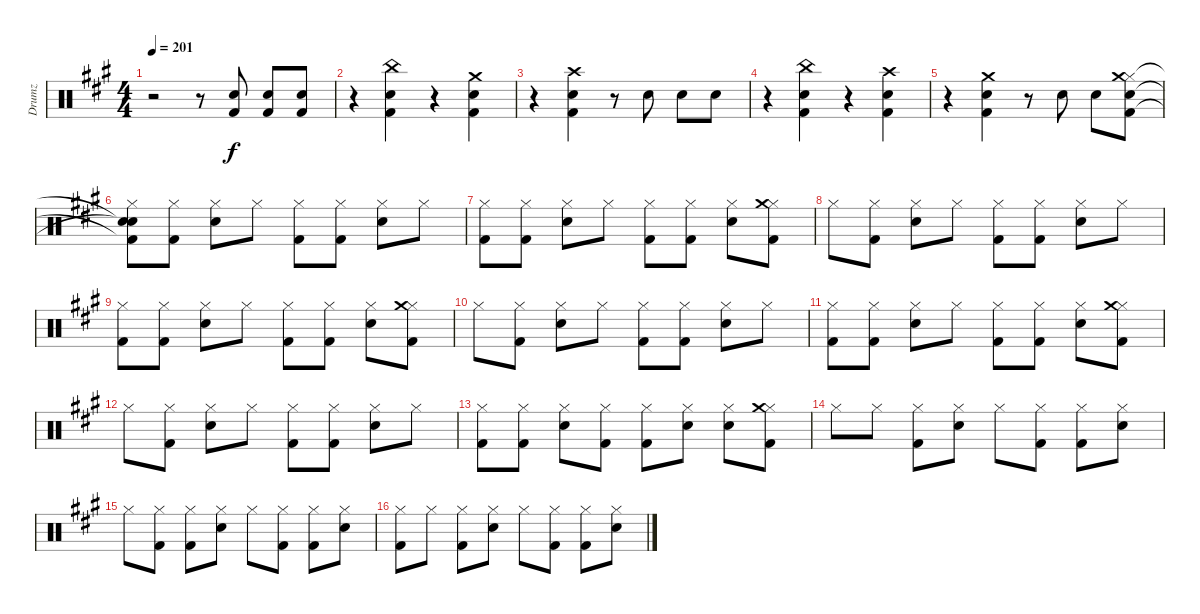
\track ("Drumz" "Drumz") {instrument percussion}
\staff {score}
\articulation defaults
\ts (4 4)
\tempo 201
\clef neutral
\ks a
r.2{dy f} r.8 ("Kick (hit) 2" "Snare (hit) 2").8 ("Kick (hit) 2" "Snare (hit) 2").8 ("Kick (hit) 2" "Snare (hit) 2").8 |
r.4 ("Kick (hit) 2" "Snare (hit) 2" "China (hit)").4 r.4 ("Kick (hit) 2" "Snare (hit) 2" "Crash medium (hit)").4 |
r.4 ("Kick (hit) 2" "Snare (hit) 2" "Crash high (hit)").4 r.8 "Snare (hit) 2".8 "Snare (hit) 2".8 "Snare (hit) 2".8 |
r.4 ("Kick (hit) 2" "Snare (hit) 2" "China (hit)").4 r.4 ("Kick (hit) 2" "Snare (hit) 2" "Crash high (hit)").4 |
r.4 ("Kick (hit) 2" "Snare (hit) 2" "Crash medium (hit)").4 r.8 "Snare (hit) 2".8 "Snare (hit) 2".8 ("Hi-Hat (closed)" "Kick (hit) 2" "Snare (hit) 2" "Crash medium (hit)").8 |
("Hi-Hat (closed)" "Snare (hit)"{t} "Kick (hit) 2"{t} "Snare (hit)"{t}).8 ("Hi-Hat (closed)" "Kick (hit) 2").8 ("Hi-Hat (closed)" "Snare (hit) 2").8 "Hi-Hat (closed)".8 ("Hi-Hat (closed)" "Kick (hit) 2").8 ("Hi-Hat (closed)" "Kick (hit) 2").8 ("Hi-Hat (closed)" "Snare (hit) 2").8 "Hi-Hat (closed)".8 |
("Hi-Hat (closed)" "Kick (hit) 2").8 ("Hi-Hat (closed)" "Kick (hit) 2").8 ("Hi-Hat (closed)" "Snare (hit) 2").8 "Hi-Hat (closed)".8 ("Hi-Hat (closed)" "Kick (hit) 2").8 ("Hi-Hat (closed)" "Kick (hit) 2").8 ("Hi-Hat (closed)" "Snare (hit) 2").8 ("Hi-Hat (closed)" "Kick (hit) 2" "Crash medium (hit)").8 |
"Hi-Hat (closed)".8 ("Hi-Hat (closed)" "Kick (hit) 2").8 ("Hi-Hat (closed)" "Snare (hit) 2").8 "Hi-Hat (closed)".8 ("Hi-Hat (closed)" "Kick (hit) 2").8 ("Hi-Hat (closed)" "Kick (hit) 2").8 ("Hi-Hat (closed)" "Snare (hit) 2").8 "Hi-Hat (closed)".8 |
("Hi-Hat (closed)" "Kick (hit) 2").8 ("Hi-Hat (closed)" "Kick (hit) 2").8 ("Hi-Hat (closed)" "Snare (hit) 2").8 "Hi-Hat (closed)".8 ("Hi-Hat (closed)" "Kick (hit) 2").8 ("Hi-Hat (closed)" "Kick (hit) 2").8 ("Hi-Hat (closed)" "Snare (hit) 2").8 ("Hi-Hat (closed)" "Kick (hit) 2" "Crash medium (hit)").8 |
"Hi-Hat (closed)".8 ("Hi-Hat (closed)" "Kick (hit) 2").8 ("Hi-Hat (closed)" "Snare (hit) 2").8 "Hi-Hat (closed)".8 ("Hi-Hat (closed)" "Kick (hit) 2").8 ("Hi-Hat (closed)" "Kick (hit) 2").8 ("Hi-Hat (closed)" "Snare (hit) 2").8 "Hi-Hat (closed)".8 |
("Hi-Hat (closed)" "Kick (hit) 2").8 ("Hi-Hat (closed)" "Kick (hit) 2").8 ("Hi-Hat (closed)" "Snare (hit) 2").8 "Hi-Hat (closed)".8 ("Hi-Hat (closed)" "Kick (hit) 2").8 ("Hi-Hat (closed)" "Kick (hit) 2").8 ("Hi-Hat (closed)" "Snare (hit) 2").8 ("Hi-Hat (closed)" "Kick (hit) 2" "Crash medium (hit)").8 |
"Hi-Hat (closed)".8 ("Hi-Hat (closed)" "Kick (hit) 2").8 ("Hi-Hat (closed)" "Snare (hit) 2").8 "Hi-Hat (closed)".8 ("Hi-Hat (closed)" "Kick (hit) 2").8 ("Hi-Hat (closed)" "Kick (hit) 2").8 ("Hi-Hat (closed)" "Snare (hit) 2").8 "Hi-Hat (closed)".8 |
("Hi-Hat (closed)" "Kick (hit) 2").8 ("Hi-Hat (closed)" "Kick (hit) 2").8 ("Hi-Hat (closed)" "Snare (hit) 2").8 ("Hi-Hat (closed)" "Kick (hit) 2").8 ("Hi-Hat (closed)" "Kick (hit) 2").8 ("Hi-Hat (closed)" "Snare (hit) 2").8 ("Hi-Hat (closed)" "Snare (hit) 2").8 ("Hi-Hat (closed)" "Kick (hit) 2" "Crash medium (hit)").8 |
"Hi-Hat (closed)".8 "Hi-Hat (closed)".8 ("Hi-Hat (closed)" "Kick (hit) 2").8 ("Hi-Hat (closed)" "Snare (hit) 2").8 "Hi-Hat (closed)".8 ("Hi-Hat (closed)" "Kick (hit) 2").8 ("Hi-Hat (closed)" "Kick (hit) 2").8 ("Hi-Hat (closed)" "Snare (hit) 2").8 |
"Hi-Hat (closed)".8 ("Hi-Hat (closed)" "Kick (hit) 2").8 ("Hi-Hat (closed)" "Kick (hit) 2").8 ("Hi-Hat (closed)" "Snare (hit) 2").8 "Hi-Hat (closed)".8 ("Hi-Hat (closed)" "Kick (hit) 2").8 ("Hi-Hat (closed)" "Kick (hit) 2").8 ("Hi-Hat (closed)" "Snare (hit) 2").8 |
("Hi-Hat (closed)" "Kick (hit) 2").8 "Hi-Hat (closed)".8 ("Hi-Hat (closed)" "Kick (hit) 2").8 ("Hi-Hat (closed)" "Snare (hit) 2").8 "Hi-Hat (closed)".8 ("Hi-Hat (closed)" "Kick (hit) 2").8 ("Hi-Hat (closed)" "Kick (hit) 2").8 ("Hi-Hat (closed)" "Snare (hit) 2").8
